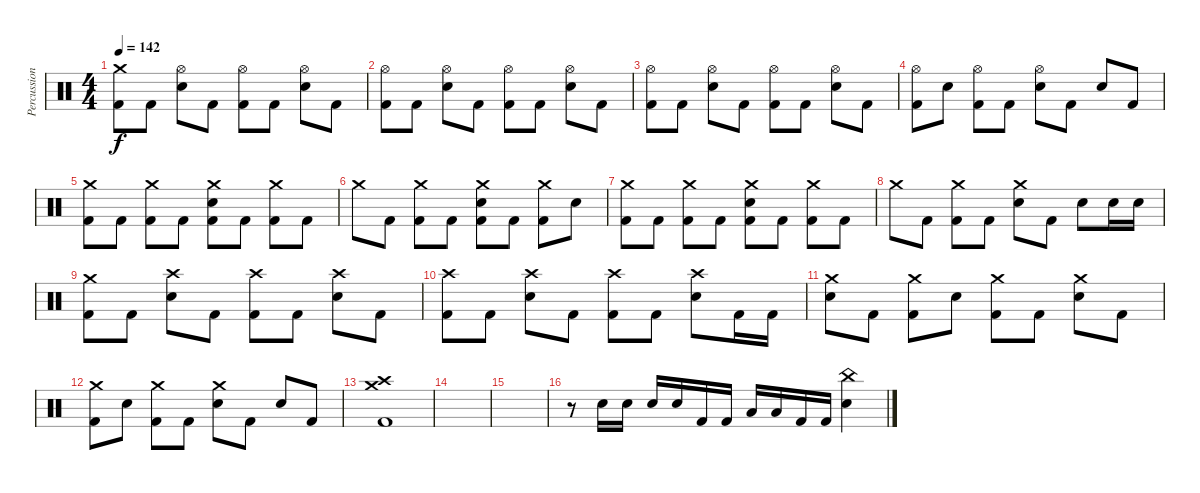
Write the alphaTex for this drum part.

\track ("Percussion" "Percussion") {instrument percussion}
\staff {score}
\articulation defaults
\ts (4 4)
\tempo 142
\clef neutral
\ks c
("Crash medium (hit)" "Kick (hit) 2").8{dy f} "Kick (hit) 2".8 ("Hi-Hat (open)" "Electric Snare (hit)").8 "Kick (hit) 2".8 ("Hi-Hat (open)" "Kick (hit) 2").8 "Kick (hit) 2".8 ("Hi-Hat (open)" "Electric Snare (hit)").8 "Kick (hit) 2".8 |
("Hi-Hat (open)" "Kick (hit) 2").8 "Kick (hit) 2".8 ("Hi-Hat (open)" "Electric Snare (hit)").8 "Kick (hit) 2".8 ("Hi-Hat (open)" "Kick (hit) 2").8 "Kick (hit) 2".8 ("Hi-Hat (open)" "Electric Snare (hit)").8 "Kick (hit) 2".8 |
("Hi-Hat (open)" "Kick (hit) 2").8 "Kick (hit) 2".8 ("Hi-Hat (open)" "Electric Snare (hit)").8 "Kick (hit) 2".8 ("Hi-Hat (open)" "Kick (hit) 2").8 "Kick (hit) 2".8 ("Hi-Hat (open)" "Electric Snare (hit)").8 "Kick (hit) 2".8 |
("Hi-Hat (open)" "Kick (hit) 2").8 "Electric Snare (hit)".8 ("Hi-Hat (open)" "Kick (hit) 2").8 "Kick (hit) 2".8 ("Hi-Hat (open)" "Electric Snare (hit)").8 "Kick (hit) 2".8 "Electric Snare (hit)".8 "Kick (hit) 2".8 |
("Crash medium (hit)" "Kick (hit) 2").8 "Kick (hit) 2".8 ("Crash medium (hit)" "Kick (hit) 2").8 "Kick (hit) 2".8 ("Crash medium (hit)" "Electric Snare (hit)" "Kick (hit) 2").8 "Kick (hit) 2".8 ("Crash medium (hit)" "Kick (hit) 2").8 "Kick (hit) 2".8 |
"Crash medium (hit)".8 "Kick (hit) 2".8 ("Crash medium (hit)" "Kick (hit) 2").8 "Kick (hit) 2".8 ("Crash medium (hit)" "Electric Snare (hit)" "Kick (hit) 2").8 "Kick (hit) 2".8 ("Crash medium (hit)" "Kick (hit) 2").8 "Electric Snare (hit)".8 |
("Crash medium (hit)" "Kick (hit) 2").8 "Kick (hit) 2".8 ("Crash medium (hit)" "Kick (hit) 2").8 "Kick (hit) 2".8 ("Crash medium (hit)" "Electric Snare (hit)" "Kick (hit) 2").8 "Kick (hit) 2".8 ("Crash medium (hit)" "Kick (hit) 2").8 "Kick (hit) 2".8 |
"Crash medium (hit)".8 "Kick (hit) 2".8 ("Crash medium (hit)" "Kick (hit) 2").8 "Kick (hit) 2".8 ("Crash medium (hit)" "Electric Snare (hit)").8 "Kick (hit) 2".8 "Electric Snare (hit)".8 "Electric Snare (hit)".16 "Electric Snare (hit)".16 |
("Crash medium (hit)" "Kick (hit) 2").8 "Kick (hit) 2".8 ("Crash high (hit)" "Electric Snare (hit)").8 "Kick (hit) 2".8 ("Crash high (hit)" "Kick (hit) 2").8 "Kick (hit) 2".8 ("Crash high (hit)" "Electric Snare (hit)").8 "Kick (hit) 2".8 |
("Crash high (hit)" "Kick (hit) 2").8 "Kick (hit) 2".8 ("Crash high (hit)" "Electric Snare (hit)").8 "Kick (hit) 2".8 ("Crash high (hit)" "Kick (hit) 2").8 "Kick (hit) 2".8 ("Crash high (hit)" "Electric Snare (hit)").8 "Kick (hit) 2".16 "Kick (hit) 2".16 |
("Crash medium (hit)" "Electric Snare (hit)").8 "Kick (hit) 2".8 ("Crash medium (hit)" "Kick (hit) 2").8 "Electric Snare (hit)".8 ("Crash medium (hit)" "Kick (hit) 2").8 "Kick (hit) 2".8 ("Crash medium (hit)" "Electric Snare (hit)").8 "Kick (hit) 2".8 |
("Crash medium (hit)" "Kick (hit) 2").8 "Electric Snare (hit)".8 ("Crash medium (hit)" "Kick (hit) 2").8 "Kick (hit) 2".8 ("Crash medium (hit)" "Electric Snare (hit)").8 "Kick (hit) 2".8 "Electric Snare (hit)".8 "Kick (hit) 2".8 |
("Crash high (hit)" "Crash medium (hit)" "Kick (hit) 2").1 |
|
|
r.8 "Electric Snare (hit)".16 "Electric Snare (hit)".16 "Electric Snare (hit)".16 "Electric Snare (hit)".16 "Kick (hit) 2".16 "Kick (hit) 2".16 "Low Floor Tom (hit)".16 "Low Floor Tom (hit)".16 "Kick (hit) 2".16 "Kick (hit) 2".16 ("China (hit)" "Electric Snare (hit)").4
